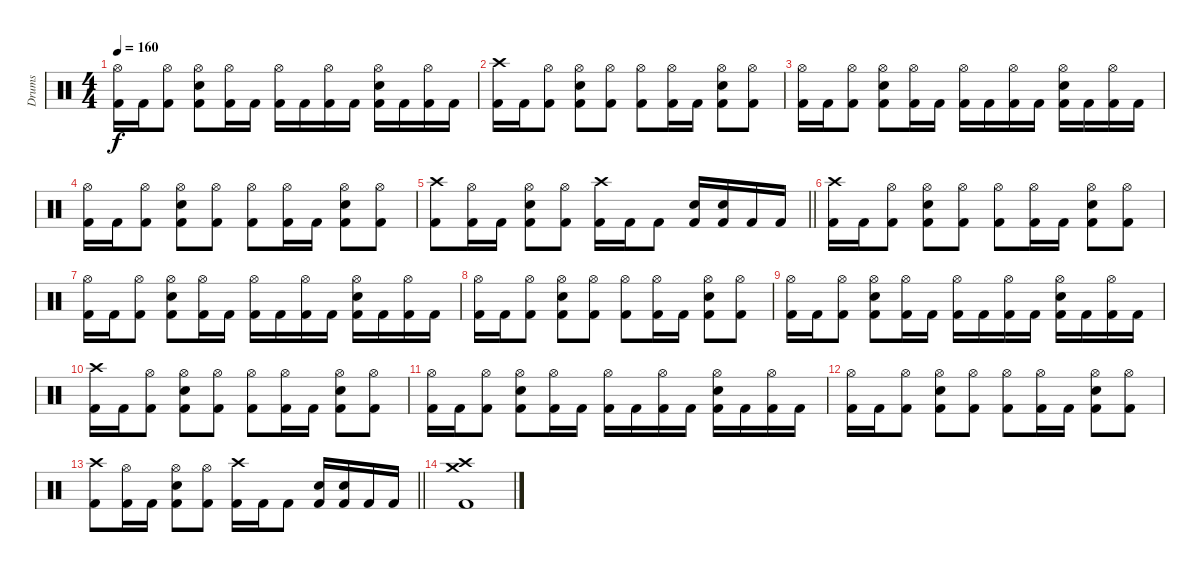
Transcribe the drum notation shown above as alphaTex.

\track ("Drums" "Drums") {instrument percussion}
\staff {score}
\articulation defaults
\ts (4 4)
\tempo 160
\clef neutral
\ks c
("Hi-Hat (open)" "Kick (hit) 2").16{dy f} "Kick (hit) 2".16 ("Hi-Hat (open)" "Kick (hit) 2").8 ("Hi-Hat (open)" "Snare (hit) 2" "Kick (hit) 2").8 ("Hi-Hat (open)" "Kick (hit) 2").16 "Kick (hit) 2".16 ("Hi-Hat (open)" "Kick (hit) 2").16 "Kick (hit) 2".16 ("Hi-Hat (open)" "Kick (hit) 2").16 "Kick (hit) 2".16 ("Hi-Hat (open)" "Snare (hit) 2" "Kick (hit) 2").16 "Kick (hit) 2".16 ("Hi-Hat (open)" "Kick (hit) 2").16 "Kick (hit) 2".16 |
("Crash high (hit)" "Kick (hit) 2").16 "Kick (hit) 2".16 ("Hi-Hat (open)" "Kick (hit) 2").8 ("Hi-Hat (open)" "Snare (hit) 2" "Kick (hit) 2").8 ("Hi-Hat (open)" "Kick (hit) 2").8 ("Hi-Hat (open)" "Kick (hit) 2").8 ("Hi-Hat (open)" "Kick (hit) 2").16 "Kick (hit) 2".16 ("Hi-Hat (open)" "Snare (hit) 2" "Kick (hit) 2").8 ("Hi-Hat (open)" "Kick (hit) 2").8 |
("Hi-Hat (open)" "Kick (hit) 2").16 "Kick (hit) 2".16 ("Hi-Hat (open)" "Kick (hit) 2").8 ("Hi-Hat (open)" "Snare (hit) 2" "Kick (hit) 2").8 ("Hi-Hat (open)" "Kick (hit) 2").16 "Kick (hit) 2".16 ("Hi-Hat (open)" "Kick (hit) 2").16 "Kick (hit) 2".16 ("Hi-Hat (open)" "Kick (hit) 2").16 "Kick (hit) 2".16 ("Hi-Hat (open)" "Snare (hit) 2" "Kick (hit) 2").16 "Kick (hit) 2".16 ("Hi-Hat (open)" "Kick (hit) 2").16 "Kick (hit) 2".16 |
("Hi-Hat (open)" "Kick (hit) 2").16 "Kick (hit) 2".16 ("Hi-Hat (open)" "Kick (hit) 2").8 ("Hi-Hat (open)" "Snare (hit) 2" "Kick (hit) 2").8 ("Hi-Hat (open)" "Kick (hit) 2").8 ("Hi-Hat (open)" "Kick (hit) 2").8 ("Hi-Hat (open)" "Kick (hit) 2").16 "Kick (hit) 2".16 ("Hi-Hat (open)" "Snare (hit) 2" "Kick (hit) 2").8 ("Hi-Hat (open)" "Kick (hit) 2").8 |
\barLineRight lightlight
("Crash high (hit)" "Kick (hit) 2").8 ("Hi-Hat (open)" "Kick (hit) 2").16 "Kick (hit) 2".16 ("Hi-Hat (open)" "Snare (hit) 2" "Kick (hit) 2").8 ("Hi-Hat (open)" "Kick (hit) 2").8 ("Crash high (hit)" "Kick (hit) 2").16 "Kick (hit) 2".16 "Kick (hit) 2".8 ("Snare (hit) 2" "Kick (hit) 2").16 ("Snare (hit) 2" "Kick (hit) 2").16 "Kick (hit) 2".16 "Kick (hit) 2".16 |
("Crash high (hit)" "Kick (hit) 2").16 "Kick (hit) 2".16 ("Hi-Hat (open)" "Kick (hit) 2").8 ("Hi-Hat (open)" "Snare (hit) 2" "Kick (hit) 2").8 ("Hi-Hat (open)" "Kick (hit) 2").8 ("Hi-Hat (open)" "Kick (hit) 2").8 ("Hi-Hat (open)" "Kick (hit) 2").16 "Kick (hit) 2".16 ("Hi-Hat (open)" "Snare (hit) 2" "Kick (hit) 2").8 ("Hi-Hat (open)" "Kick (hit) 2").8 |
("Hi-Hat (open)" "Kick (hit) 2").16 "Kick (hit) 2".16 ("Hi-Hat (open)" "Kick (hit) 2").8 ("Hi-Hat (open)" "Snare (hit) 2" "Kick (hit) 2").8 ("Hi-Hat (open)" "Kick (hit) 2").16 "Kick (hit) 2".16 ("Hi-Hat (open)" "Kick (hit) 2").16 "Kick (hit) 2".16 ("Hi-Hat (open)" "Kick (hit) 2").16 "Kick (hit) 2".16 ("Hi-Hat (open)" "Snare (hit) 2" "Kick (hit) 2").16 "Kick (hit) 2".16 ("Hi-Hat (open)" "Kick (hit) 2").16 "Kick (hit) 2".16 |
("Hi-Hat (open)" "Kick (hit) 2").16 "Kick (hit) 2".16 ("Hi-Hat (open)" "Kick (hit) 2").8 ("Hi-Hat (open)" "Snare (hit) 2" "Kick (hit) 2").8 ("Hi-Hat (open)" "Kick (hit) 2").8 ("Hi-Hat (open)" "Kick (hit) 2").8 ("Hi-Hat (open)" "Kick (hit) 2").16 "Kick (hit) 2".16 ("Hi-Hat (open)" "Snare (hit) 2" "Kick (hit) 2").8 ("Hi-Hat (open)" "Kick (hit) 2").8 |
("Hi-Hat (open)" "Kick (hit) 2").16 "Kick (hit) 2".16 ("Hi-Hat (open)" "Kick (hit) 2").8 ("Hi-Hat (open)" "Snare (hit) 2" "Kick (hit) 2").8 ("Hi-Hat (open)" "Kick (hit) 2").16 "Kick (hit) 2".16 ("Hi-Hat (open)" "Kick (hit) 2").16 "Kick (hit) 2".16 ("Hi-Hat (open)" "Kick (hit) 2").16 "Kick (hit) 2".16 ("Hi-Hat (open)" "Snare (hit) 2" "Kick (hit) 2").16 "Kick (hit) 2".16 ("Hi-Hat (open)" "Kick (hit) 2").16 "Kick (hit) 2".16 |
("Crash high (hit)" "Kick (hit) 2").16 "Kick (hit) 2".16 ("Hi-Hat (open)" "Kick (hit) 2").8 ("Hi-Hat (open)" "Snare (hit) 2" "Kick (hit) 2").8 ("Hi-Hat (open)" "Kick (hit) 2").8 ("Hi-Hat (open)" "Kick (hit) 2").8 ("Hi-Hat (open)" "Kick (hit) 2").16 "Kick (hit) 2".16 ("Hi-Hat (open)" "Snare (hit) 2" "Kick (hit) 2").8 ("Hi-Hat (open)" "Kick (hit) 2").8 |
("Hi-Hat (open)" "Kick (hit) 2").16 "Kick (hit) 2".16 ("Hi-Hat (open)" "Kick (hit) 2").8 ("Hi-Hat (open)" "Snare (hit) 2" "Kick (hit) 2").8 ("Hi-Hat (open)" "Kick (hit) 2").16 "Kick (hit) 2".16 ("Hi-Hat (open)" "Kick (hit) 2").16 "Kick (hit) 2".16 ("Hi-Hat (open)" "Kick (hit) 2").16 "Kick (hit) 2".16 ("Hi-Hat (open)" "Snare (hit) 2" "Kick (hit) 2").16 "Kick (hit) 2".16 ("Hi-Hat (open)" "Kick (hit) 2").16 "Kick (hit) 2".16 |
("Hi-Hat (open)" "Kick (hit) 2").16 "Kick (hit) 2".16 ("Hi-Hat (open)" "Kick (hit) 2").8 ("Hi-Hat (open)" "Snare (hit) 2" "Kick (hit) 2").8 ("Hi-Hat (open)" "Kick (hit) 2").8 ("Hi-Hat (open)" "Kick (hit) 2").8 ("Hi-Hat (open)" "Kick (hit) 2").16 "Kick (hit) 2".16 ("Hi-Hat (open)" "Snare (hit) 2" "Kick (hit) 2").8 ("Hi-Hat (open)" "Kick (hit) 2").8 |
\barLineRight lightlight
("Crash high (hit)" "Kick (hit) 2").8 ("Hi-Hat (open)" "Kick (hit) 2").16 "Kick (hit) 2".16 ("Hi-Hat (open)" "Snare (hit) 2" "Kick (hit) 2").8 ("Hi-Hat (open)" "Kick (hit) 2").8 ("Crash high (hit)" "Kick (hit) 2").16 "Kick (hit) 2".16 "Kick (hit) 2".8 ("Snare (hit) 2" "Kick (hit) 2").16 ("Snare (hit) 2" "Kick (hit) 2").16 "Kick (hit) 2".16 "Kick (hit) 2".16 |
("Crash medium (hit)" "Crash high (hit)" "Kick (hit) 2").1
